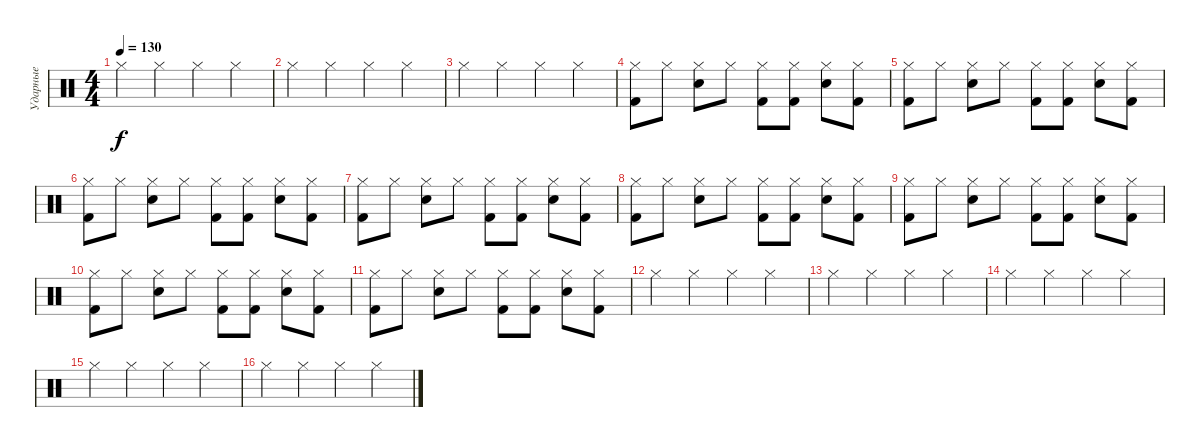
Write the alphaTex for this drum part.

\track ("Ударные" "Ударные") {instrument percussion}
\staff {score}
\articulation defaults
\ts (4 4)
\tempo 130
\clef neutral
\ks c "Hi-Hat (closed)".4{dy f} "Hi-Hat (closed)".4 "Hi-Hat (closed)".4 "Hi-Hat (closed)".4
|
"Hi-Hat (closed)".4 "Hi-Hat (closed)".4 "Hi-Hat (closed)".4 "Hi-Hat (closed)".4 |
"Hi-Hat (closed)".4 "Hi-Hat (closed)".4 "Hi-Hat (closed)".4 "Hi-Hat (closed)".4 |
("Hi-Hat (closed)" "Kick (hit) 2").8 "Hi-Hat (closed)".8 ("Hi-Hat (closed)" "Snare (hit) 2").8 "Hi-Hat (closed)".8 ("Hi-Hat (closed)" "Kick (hit) 2").8 ("Hi-Hat (closed)" "Kick (hit) 2").8 ("Hi-Hat (closed)" "Snare (hit) 2").8 ("Hi-Hat (closed)" "Kick (hit) 2").8 |
("Hi-Hat (closed)" "Kick (hit) 2").8 "Hi-Hat (closed)".8 ("Hi-Hat (closed)" "Snare (hit) 2").8 "Hi-Hat (closed)".8 ("Hi-Hat (closed)" "Kick (hit) 2").8 ("Hi-Hat (closed)" "Kick (hit) 2").8 ("Hi-Hat (closed)" "Snare (hit) 2").8 ("Hi-Hat (closed)" "Kick (hit) 2").8 |
("Hi-Hat (closed)" "Kick (hit) 2").8 "Hi-Hat (closed)".8 ("Hi-Hat (closed)" "Snare (hit) 2").8 "Hi-Hat (closed)".8 ("Hi-Hat (closed)" "Kick (hit) 2").8 ("Hi-Hat (closed)" "Kick (hit) 2").8 ("Hi-Hat (closed)" "Snare (hit) 2").8 ("Hi-Hat (closed)" "Kick (hit) 2").8 |
("Hi-Hat (closed)" "Kick (hit) 2").8 "Hi-Hat (closed)".8 ("Hi-Hat (closed)" "Snare (hit) 2").8 "Hi-Hat (closed)".8 ("Hi-Hat (closed)" "Kick (hit) 2").8 ("Hi-Hat (closed)" "Kick (hit) 2").8 ("Hi-Hat (closed)" "Snare (hit) 2").8 ("Hi-Hat (closed)" "Kick (hit) 2").8 |
("Hi-Hat (closed)" "Kick (hit) 2").8 "Hi-Hat (closed)".8 ("Hi-Hat (closed)" "Snare (hit) 2").8 "Hi-Hat (closed)".8 ("Hi-Hat (closed)" "Kick (hit) 2").8 ("Hi-Hat (closed)" "Kick (hit) 2").8 ("Hi-Hat (closed)" "Snare (hit) 2").8 ("Hi-Hat (closed)" "Kick (hit) 2").8 |
("Hi-Hat (closed)" "Kick (hit) 2").8 "Hi-Hat (closed)".8 ("Hi-Hat (closed)" "Snare (hit) 2").8 "Hi-Hat (closed)".8 ("Hi-Hat (closed)" "Kick (hit) 2").8 ("Hi-Hat (closed)" "Kick (hit) 2").8 ("Hi-Hat (closed)" "Snare (hit) 2").8 ("Hi-Hat (closed)" "Kick (hit) 2").8 |
("Hi-Hat (closed)" "Kick (hit) 2").8 "Hi-Hat (closed)".8 ("Hi-Hat (closed)" "Snare (hit) 2").8 "Hi-Hat (closed)".8 ("Hi-Hat (closed)" "Kick (hit) 2").8 ("Hi-Hat (closed)" "Kick (hit) 2").8 ("Hi-Hat (closed)" "Snare (hit) 2").8 ("Hi-Hat (closed)" "Kick (hit) 2").8 |
("Hi-Hat (closed)" "Kick (hit) 2").8 "Hi-Hat (closed)".8 ("Hi-Hat (closed)" "Snare (hit) 2").8 "Hi-Hat (closed)".8 ("Hi-Hat (closed)" "Kick (hit) 2").8 ("Hi-Hat (closed)" "Kick (hit) 2").8 ("Hi-Hat (closed)" "Snare (hit) 2").8 ("Hi-Hat (closed)" "Kick (hit) 2").8 |
"Hi-Hat (closed)".4 "Hi-Hat (closed)".4 "Hi-Hat (closed)".4 "Hi-Hat (closed)".4 |
"Hi-Hat (closed)".4 "Hi-Hat (closed)".4 "Hi-Hat (closed)".4 "Hi-Hat (closed)".4 |
"Hi-Hat (closed)".4 "Hi-Hat (closed)".4 "Hi-Hat (closed)".4 "Hi-Hat (closed)".4 |
"Hi-Hat (closed)".4 "Hi-Hat (closed)".4 "Hi-Hat (closed)".4 "Hi-Hat (closed)".4 |
"Hi-Hat (closed)".4 "Hi-Hat (closed)".4 "Hi-Hat (closed)".4 "Hi-Hat (closed)".4
